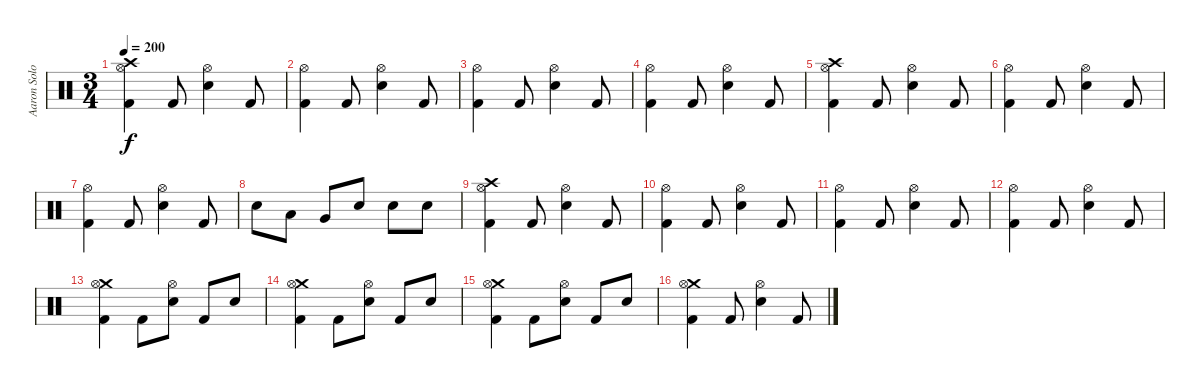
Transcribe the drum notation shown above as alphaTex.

\track ("Aaron Solowoniuk" "Aaron Solo") {instrument percussion}
\staff {score}
\articulation defaults
\ts (3 4)
\tempo 200
\clef neutral
\ks c
("Crash high (hit)" "Hi-Hat (open)" "Kick (hit) 2").4{dy f} "Kick (hit) 2".8 ("Hi-Hat (open)" "Snare (hit) 2").4 "Kick (hit) 2".8 |
("Hi-Hat (open)" "Kick (hit) 2").4 "Kick (hit) 2".8 ("Hi-Hat (open)" "Snare (hit) 2").4 "Kick (hit) 2".8 |
("Hi-Hat (open)" "Kick (hit) 2").4 "Kick (hit) 2".8 ("Hi-Hat (open)" "Snare (hit) 2").4 "Kick (hit) 2".8 |
("Hi-Hat (open)" "Kick (hit) 2").4 "Kick (hit) 2".8 ("Hi-Hat (open)" "Snare (hit) 2").4 "Kick (hit) 2".8 |
("Crash high (hit)" "Hi-Hat (open)" "Kick (hit) 2").4 "Kick (hit) 2".8 ("Hi-Hat (open)" "Snare (hit) 2").4 "Kick (hit) 2".8 |
("Hi-Hat (open)" "Kick (hit) 2").4 "Kick (hit) 2".8 ("Hi-Hat (open)" "Snare (hit) 2").4 "Kick (hit) 2".8 |
("Hi-Hat (open)" "Kick (hit) 2").4 "Kick (hit) 2".8 ("Hi-Hat (open)" "Snare (hit) 2").4 "Kick (hit) 2".8 |
"Snare (hit) 2".8 "Low Tom (hit)".8 "Very Low Tom (hit)".8 "Snare (hit) 2".8 "Snare (hit) 2".8 "Snare (hit) 2".8 |
("Crash high (hit)" "Hi-Hat (open)" "Kick (hit) 2").4 "Kick (hit) 2".8 ("Hi-Hat (open)" "Snare (hit) 2").4 "Kick (hit) 2".8 |
("Hi-Hat (open)" "Kick (hit) 2").4 "Kick (hit) 2".8 ("Hi-Hat (open)" "Snare (hit) 2").4 "Kick (hit) 2".8 |
("Hi-Hat (open)" "Kick (hit) 2").4 "Kick (hit) 2".8 ("Hi-Hat (open)" "Snare (hit) 2").4 "Kick (hit) 2".8 |
("Hi-Hat (open)" "Kick (hit) 2").4 "Kick (hit) 2".8 ("Hi-Hat (open)" "Snare (hit) 2").4 "Kick (hit) 2".8 |
("Crash medium (hit)" "Hi-Hat (open)" "Kick (hit) 2").4 "Kick (hit) 2".8 ("Hi-Hat (open)" "Snare (hit) 2").8 "Kick (hit) 2".8 "Snare (hit) 2".8 |
("Crash medium (hit)" "Hi-Hat (open)" "Kick (hit) 2").4 "Kick (hit) 2".8 ("Hi-Hat (open)" "Snare (hit) 2").8 "Kick (hit) 2".8 "Snare (hit) 2".8 |
("Crash medium (hit)" "Hi-Hat (open)" "Kick (hit) 2").4 "Kick (hit) 2".8 ("Hi-Hat (open)" "Snare (hit) 2").8 "Kick (hit) 2".8 "Snare (hit) 2".8 |
("Crash medium (hit)" "Hi-Hat (open)" "Kick (hit) 2").4 "Kick (hit) 2".8 ("Hi-Hat (open)" "Snare (hit) 2").4 "Kick (hit) 2".8
